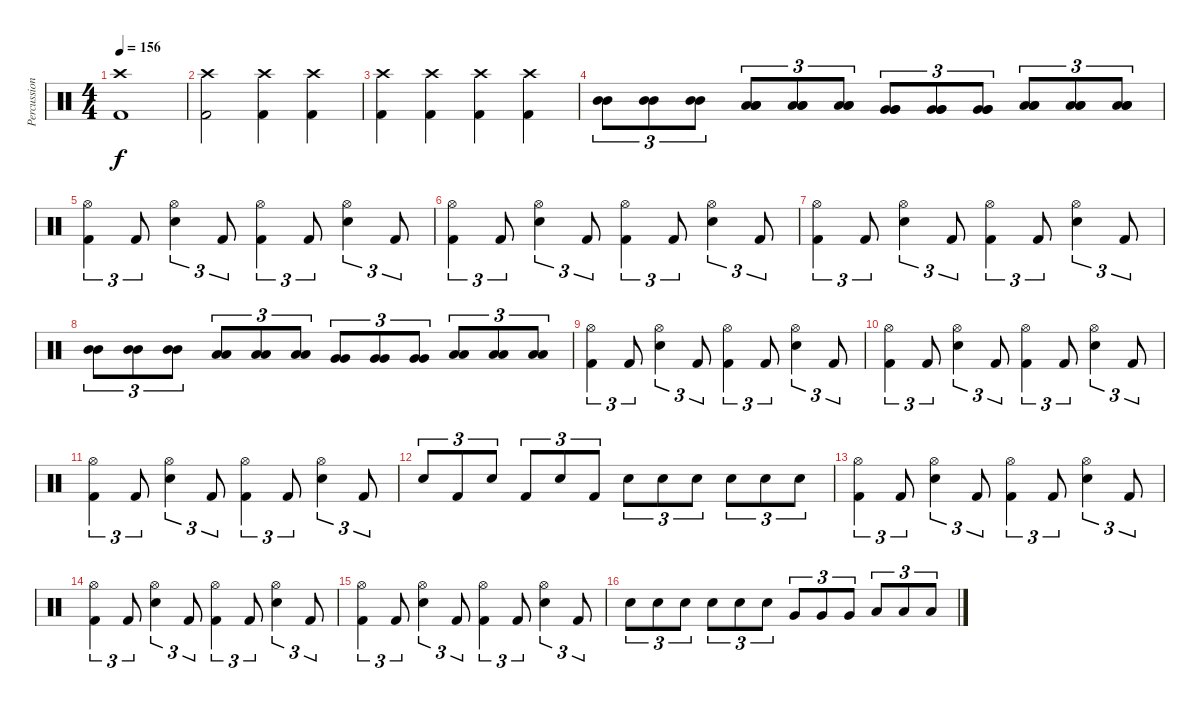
\track ("Percussion" "Percussion") {instrument percussion}
\staff {score}
\articulation defaults
\ts (4 4)
\tempo 156
\clef neutral
\ks c
("Crash high (hit)" "Kick (hit) 2").1{dy f} |
("Crash high (hit)" "Kick (hit) 2").2 ("Crash high (hit)" "Kick (hit) 2").4 ("Crash high (hit)" "Kick (hit) 2").4 |
("Crash high (hit)" "Kick (hit) 2").4 ("Crash high (hit)" "Kick (hit) 2").4 ("Crash high (hit)" "Kick (hit) 2").4 ("Crash high (hit)" "Kick (hit) 2").4 |
("Mid Tom (hit)" "Mid Tom (hit)").8{tu (3 2)} ("Mid Tom (hit)" "Mid Tom (hit)").8{tu (3 2)} ("Mid Tom (hit)" "Mid Tom (hit)").8{tu (3 2)} ("Low Tom (hit)" "Low Tom (hit)" "Low Tom (hit)").8{tu (3 2)} ("Low Tom (hit)" "Low Tom (hit)" "Low Tom (hit)").8{tu (3 2)} ("Low Tom (hit)" "Low Tom (hit)" "Low Tom (hit)").8{tu (3 2)} ("Very Low Tom (hit)" "Very Low Tom (hit)" "Very Low Tom (hit)").8{tu (3 2)} ("Very Low Tom (hit)" "Very Low Tom (hit)" "Very Low Tom (hit)").8{tu (3 2)} ("Very Low Tom (hit)" "Very Low Tom (hit)" "Very Low Tom (hit)").8{tu (3 2)} ("Low Floor Tom (hit)" "Low Floor Tom (hit)" "Low Floor Tom (hit)").8{tu (3 2)} ("Low Floor Tom (hit)" "Low Floor Tom (hit)" "Low Floor Tom (hit)").8{tu (3 2)} ("Low Floor Tom (hit)" "Low Floor Tom (hit)" "Low Floor Tom (hit)").8{tu (3 2)} |
("Hi-Hat (open)" "Kick (hit) 2").4{tu (3 2)} "Kick (hit) 2".8{tu (3 2)} ("Electric Snare (hit)" "Hi-Hat (open)").4{tu (3 2)} "Kick (hit) 2".8{tu (3 2)} ("Hi-Hat (open)" "Kick (hit) 2").4{tu (3 2)} "Kick (hit) 2".8{tu (3 2)} ("Electric Snare (hit)" "Hi-Hat (open)").4{tu (3 2)} "Kick (hit) 2".8{tu (3 2)} |
("Hi-Hat (open)" "Kick (hit) 2").4{tu (3 2)} "Kick (hit) 2".8{tu (3 2)} ("Electric Snare (hit)" "Hi-Hat (open)").4{tu (3 2)} "Kick (hit) 2".8{tu (3 2)} ("Hi-Hat (open)" "Kick (hit) 2").4{tu (3 2)} "Kick (hit) 2".8{tu (3 2)} ("Electric Snare (hit)" "Hi-Hat (open)").4{tu (3 2)} "Kick (hit) 2".8{tu (3 2)} |
("Hi-Hat (open)" "Kick (hit) 2").4{tu (3 2)} "Kick (hit) 2".8{tu (3 2)} ("Electric Snare (hit)" "Hi-Hat (open)").4{tu (3 2)} "Kick (hit) 2".8{tu (3 2)} ("Hi-Hat (open)" "Kick (hit) 2").4{tu (3 2)} "Kick (hit) 2".8{tu (3 2)} ("Electric Snare (hit)" "Hi-Hat (open)").4{tu (3 2)} "Kick (hit) 2".8{tu (3 2)} |
("Mid Tom (hit)" "Mid Tom (hit)").8{tu (3 2)} ("Mid Tom (hit)" "Mid Tom (hit)").8{tu (3 2)} ("Mid Tom (hit)" "Mid Tom (hit)").8{tu (3 2)} ("Low Tom (hit)" "Low Tom (hit)").8{tu (3 2)} ("Low Tom (hit)" "Low Tom (hit)").8{tu (3 2)} ("Low Tom (hit)" "Low Tom (hit)").8{tu (3 2)} ("Very Low Tom (hit)" "Very Low Tom (hit)").8{tu (3 2)} ("Very Low Tom (hit)" "Very Low Tom (hit)").8{tu (3 2)} ("Very Low Tom (hit)" "Very Low Tom (hit)").8{tu (3 2)} ("Low Floor Tom (hit)" "Low Floor Tom (hit)").8{tu (3 2)} ("Low Floor Tom (hit)" "Low Floor Tom (hit)").8{tu (3 2)} ("Low Floor Tom (hit)" "Low Floor Tom (hit)").8{tu (3 2)} |
("Hi-Hat (open)" "Kick (hit) 2").4{tu (3 2)} "Kick (hit) 2".8{tu (3 2)} ("Electric Snare (hit)" "Hi-Hat (open)").4{tu (3 2)} "Kick (hit) 2".8{tu (3 2)} ("Hi-Hat (open)" "Kick (hit) 2").4{tu (3 2)} "Kick (hit) 2".8{tu (3 2)} ("Electric Snare (hit)" "Hi-Hat (open)").4{tu (3 2)} "Kick (hit) 2".8{tu (3 2)} |
("Hi-Hat (open)" "Kick (hit) 2").4{tu (3 2)} "Kick (hit) 2".8{tu (3 2)} ("Electric Snare (hit)" "Hi-Hat (open)").4{tu (3 2)} "Kick (hit) 2".8{tu (3 2)} ("Hi-Hat (open)" "Kick (hit) 2").4{tu (3 2)} "Kick (hit) 2".8{tu (3 2)} ("Electric Snare (hit)" "Hi-Hat (open)").4{tu (3 2)} "Kick (hit) 2".8{tu (3 2)} |
("Hi-Hat (open)" "Kick (hit) 2").4{tu (3 2)} "Kick (hit) 2".8{tu (3 2)} ("Electric Snare (hit)" "Hi-Hat (open)").4{tu (3 2)} "Kick (hit) 2".8{tu (3 2)} ("Hi-Hat (open)" "Kick (hit) 2").4{tu (3 2)} "Kick (hit) 2".8{tu (3 2)} ("Electric Snare (hit)" "Hi-Hat (open)").4{tu (3 2)} "Kick (hit) 2".8{tu (3 2)} |
"Electric Snare (hit)".8{tu (3 2)} "Kick (hit) 2".8{tu (3 2)} "Electric Snare (hit)".8{tu (3 2)} "Kick (hit) 2".8{tu (3 2)} "Electric Snare (hit)".8{tu (3 2)} "Kick (hit) 2".8{tu (3 2)} "Electric Snare (hit)".8{tu (3 2)} "Electric Snare (hit)".8{tu (3 2)} "Electric Snare (hit)".8{tu (3 2)} "Electric Snare (hit)".8{tu (3 2)} "Electric Snare (hit)".8{tu (3 2)} "Electric Snare (hit)".8{tu (3 2)} |
("Hi-Hat (open)" "Kick (hit) 2").4{tu (3 2)} "Kick (hit) 2".8{tu (3 2)} ("Electric Snare (hit)" "Hi-Hat (open)").4{tu (3 2)} "Kick (hit) 2".8{tu (3 2)} ("Hi-Hat (open)" "Kick (hit) 2").4{tu (3 2)} "Kick (hit) 2".8{tu (3 2)} ("Electric Snare (hit)" "Hi-Hat (open)").4{tu (3 2)} "Kick (hit) 2".8{tu (3 2)} |
("Hi-Hat (open)" "Kick (hit) 2").4{tu (3 2)} "Kick (hit) 2".8{tu (3 2)} ("Electric Snare (hit)" "Hi-Hat (open)").4{tu (3 2)} "Kick (hit) 2".8{tu (3 2)} ("Hi-Hat (open)" "Kick (hit) 2").4{tu (3 2)} "Kick (hit) 2".8{tu (3 2)} ("Electric Snare (hit)" "Hi-Hat (open)").4{tu (3 2)} "Kick (hit) 2".8{tu (3 2)} |
("Hi-Hat (open)" "Kick (hit) 2").4{tu (3 2)} "Kick (hit) 2".8{tu (3 2)} ("Electric Snare (hit)" "Hi-Hat (open)").4{tu (3 2)} "Kick (hit) 2".8{tu (3 2)} ("Hi-Hat (open)" "Kick (hit) 2").4{tu (3 2)} "Kick (hit) 2".8{tu (3 2)} ("Electric Snare (hit)" "Hi-Hat (open)").4{tu (3 2)} "Kick (hit) 2".8{tu (3 2)} |
"Electric Snare (hit)".8{tu (3 2)} "Electric Snare (hit)".8{tu (3 2)} "Electric Snare (hit)".8{tu (3 2)} "Electric Snare (hit)".8{tu (3 2)} "Electric Snare (hit)".8{tu (3 2)} "Electric Snare (hit)".8{tu (3 2)} "Very Low Tom (hit)".8{tu (3 2)} "Very Low Tom (hit)".8{tu (3 2)} "Very Low Tom (hit)".8{tu (3 2)} "Low Floor Tom (hit)".8{tu (3 2)} "Low Floor Tom (hit)".8{tu (3 2)} "Low Floor Tom (hit)".8{tu (3 2)}
